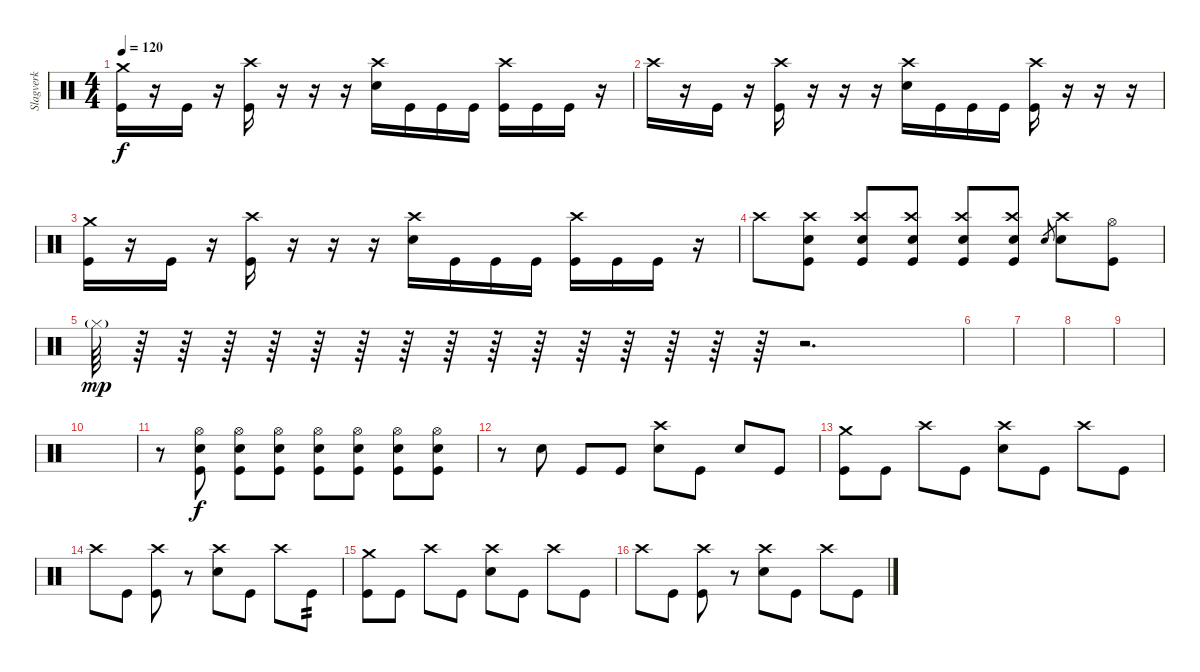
\track ("Slagverk" "Slagverk") {instrument percussion}
\staff {score}
\articulation defaults
\ts (4 4)
\tempo 120
\clef neutral
\ks c
("Crash medium (hit)" "Kick (hit)").16{dy f} r.16 "Kick (hit)".16 r.16 ("Crash high (hit)" "Kick (hit)").16 r.16 r.16 r.16 ("Crash high (hit)" "Snare (hit) 2").16 "Kick (hit)".16 "Kick (hit)".16 "Kick (hit)".16 ("Crash high (hit)" "Kick (hit)").16 "Kick (hit)".16 "Kick (hit)".16 r.16 |
"Crash high (hit)".16 r.16 "Kick (hit)".16 r.16 ("Crash high (hit)" "Kick (hit)").16 r.16 r.16 r.16 ("Crash high (hit)" "Snare (hit) 2").16 "Kick (hit)".16 "Kick (hit)".16 "Kick (hit)".16 ("Crash high (hit)" "Kick (hit)").16 r.16 r.16 r.16 |
("Crash medium (hit)" "Kick (hit)").16 r.16 "Kick (hit)".16 r.16 ("Crash high (hit)" "Kick (hit)").16 r.16 r.16 r.16 ("Crash high (hit)" "Snare (hit) 2").16 "Kick (hit)".16 "Kick (hit)".16 "Kick (hit)".16 ("Crash high (hit)" "Kick (hit)").16 "Kick (hit)".16 "Kick (hit)".16 r.16 |
"Crash high (hit)".8 ("Crash high (hit)" "Snare (hit) 2" "Kick (hit)").8 ("Crash high (hit)" "Snare (hit) 2" "Kick (hit)").8 ("Crash high (hit)" "Snare (hit) 2" "Kick (hit)").8 ("Crash high (hit)" "Snare (hit) 2" "Kick (hit)").8 ("Crash high (hit)" "Snare (hit) 2" "Kick (hit)").8 "Snare (hit) 2".8{gr} ("Crash high (hit)" "Snare (hit) 2").8 ("Hi-Hat (open)" "Kick (hit)").8 |
"Hi-Hat (closed)"{g}.64{dy mp} r.64 r.64 r.64 r.64 r.64 r.64 r.64 r.64 r.64 r.64 r.64 r.64 r.64 r.64 r.64 r.2{d} |
|
|
|
|
|
r.8 ("Hi-Hat (open)" "Snare (hit) 2" "Kick (hit)").8{dy f} ("Hi-Hat (open)" "Snare (hit) 2" "Kick (hit)").8 ("Hi-Hat (open)" "Snare (hit) 2" "Kick (hit)").8 ("Hi-Hat (open)" "Snare (hit) 2" "Kick (hit)").8 ("Hi-Hat (open)" "Snare (hit) 2" "Kick (hit)").8 ("Hi-Hat (open)" "Snare (hit) 2" "Kick (hit)").8 ("Hi-Hat (open)" "Snare (hit) 2" "Kick (hit)").8 |
r.8 "Snare (hit) 2".8 "Kick (hit)".8 "Kick (hit)".8 ("Crash high (hit)" "Snare (hit) 2").8 "Kick (hit)".8 "Snare (hit) 2".8 "Kick (hit)".8 |
("Crash medium (hit)" "Kick (hit)").8 "Kick (hit)".8 "Crash high (hit)".8 "Kick (hit)".8 ("Crash high (hit)" "Snare (hit) 2").8 "Kick (hit)".8 "Crash high (hit)".8 "Kick (hit)".8 |
"Crash high (hit)".8 "Kick (hit)".8 ("Crash high (hit)" "Kick (hit)").8 r.8 ("Crash high (hit)" "Snare (hit) 2").8 "Kick (hit)".8 "Crash high (hit)".8 "Kick (hit)".8{tp 2} |
("Crash medium (hit)" "Kick (hit)").8 "Kick (hit)".8 "Crash high (hit)".8 "Kick (hit)".8 ("Crash high (hit)" "Snare (hit) 2").8 "Kick (hit)".8 "Crash high (hit)".8 "Kick (hit)".8 |
"Crash high (hit)".8 "Kick (hit)".8 ("Crash high (hit)" "Kick (hit)").8 r.8 ("Crash high (hit)" "Snare (hit) 2").8 "Kick (hit)".8 "Crash high (hit)".8 "Kick (hit)".8
